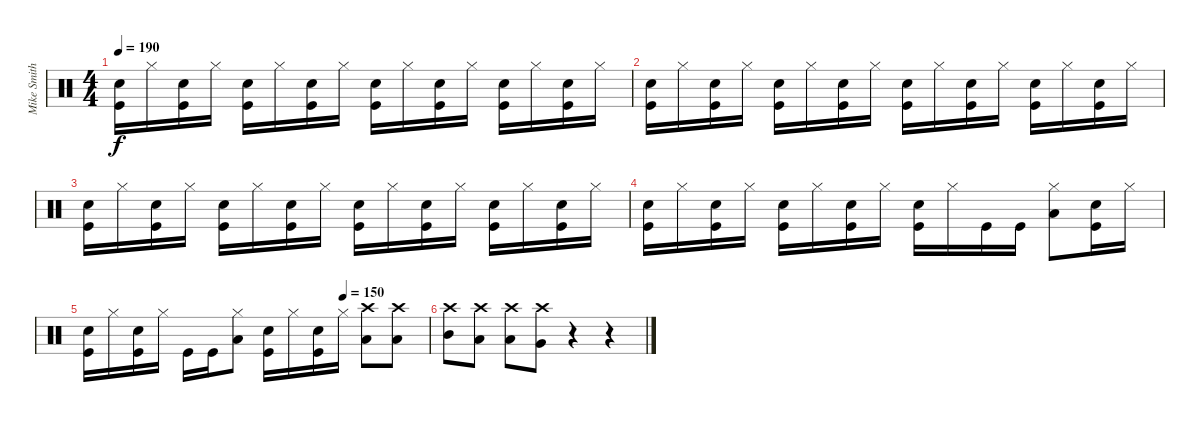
\track ("Mike Smith" "Mike Smith") {instrument percussion}
\staff
\articulation defaults
\ts (4 4)
\tempo 190
\clef neutral
\ks c
("Snare (hit) 2" "Kick (hit)").16{dy f} "Hi-Hat (closed)".16 ("Snare (hit) 2" "Kick (hit)").16 "Hi-Hat (closed)".16 ("Snare (hit) 2" "Kick (hit)").16 "Hi-Hat (closed)".16 ("Snare (hit) 2" "Kick (hit)").16 "Hi-Hat (closed)".16 ("Snare (hit) 2" "Kick (hit)").16 "Hi-Hat (closed)".16 ("Snare (hit) 2" "Kick (hit)").16 "Hi-Hat (closed)".16 ("Snare (hit) 2" "Kick (hit)").16 "Hi-Hat (closed)".16 ("Snare (hit) 2" "Kick (hit)").16 "Hi-Hat (closed)".16 |
("Snare (hit) 2" "Kick (hit)").16 "Hi-Hat (closed)".16 ("Snare (hit) 2" "Kick (hit)").16 "Hi-Hat (closed)".16 ("Snare (hit) 2" "Kick (hit)").16 "Hi-Hat (closed)".16 ("Snare (hit) 2" "Kick (hit)").16 "Hi-Hat (closed)".16 ("Snare (hit) 2" "Kick (hit)").16 "Hi-Hat (closed)".16 ("Snare (hit) 2" "Kick (hit)").16 "Hi-Hat (closed)".16 ("Snare (hit) 2" "Kick (hit)").16 "Hi-Hat (closed)".16 ("Snare (hit) 2" "Kick (hit)").16 "Hi-Hat (closed)".16 |
("Snare (hit) 2" "Kick (hit)").16 "Hi-Hat (closed)".16 ("Snare (hit) 2" "Kick (hit)").16 "Hi-Hat (closed)".16 ("Snare (hit) 2" "Kick (hit)").16 "Hi-Hat (closed)".16 ("Snare (hit) 2" "Kick (hit)").16 "Hi-Hat (closed)".16 ("Snare (hit) 2" "Kick (hit)").16 "Hi-Hat (closed)".16 ("Snare (hit) 2" "Kick (hit)").16 "Hi-Hat (closed)".16 ("Snare (hit) 2" "Kick (hit)").16 "Hi-Hat (closed)".16 ("Snare (hit) 2" "Kick (hit)").16 "Hi-Hat (closed)".16 |
("Snare (hit) 2" "Kick (hit)").16 "Hi-Hat (closed)".16 ("Snare (hit) 2" "Kick (hit)").16 "Hi-Hat (closed)".16 ("Snare (hit) 2" "Kick (hit)").16 "Hi-Hat (closed)".16 ("Snare (hit) 2" "Kick (hit)").16 "Hi-Hat (closed)".16 ("Snare (hit) 2" "Kick (hit)").16 "Hi-Hat (closed)".16 "Kick (hit)".16 "Kick (hit)".16 ("Hi-Hat (closed)" "Low Floor Tom (hit)").8 ("Snare (hit) 2" "Kick (hit)").16 "Hi-Hat (closed)".16 |
\tempo (150 0.75)
("Snare (hit) 2" "Kick (hit)").16 "Hi-Hat (closed)".16 ("Snare (hit) 2" "Kick (hit)").16 "Hi-Hat (closed)".16 "Kick (hit)".16 "Kick (hit)".16 ("Hi-Hat (closed)" "Low Floor Tom (hit)").8 ("Snare (hit) 2" "Kick (hit)").16 "Hi-Hat (closed)".16 ("Snare (hit) 2" "Kick (hit)").16 "Hi-Hat (closed)".16 ("Crash high (hit)" "Low Floor Tom (hit)").8 ("Crash high (hit)" "Low Tom (hit)").8 |
("Crash high (hit)" "Mid Tom (hit)").8 ("Crash high (hit)" "Low Floor Tom (hit)").8 ("Crash high (hit)" "Low Tom (hit)").8 ("Crash high (hit)" "Very Low Tom (hit)").8 r.4 r.4
